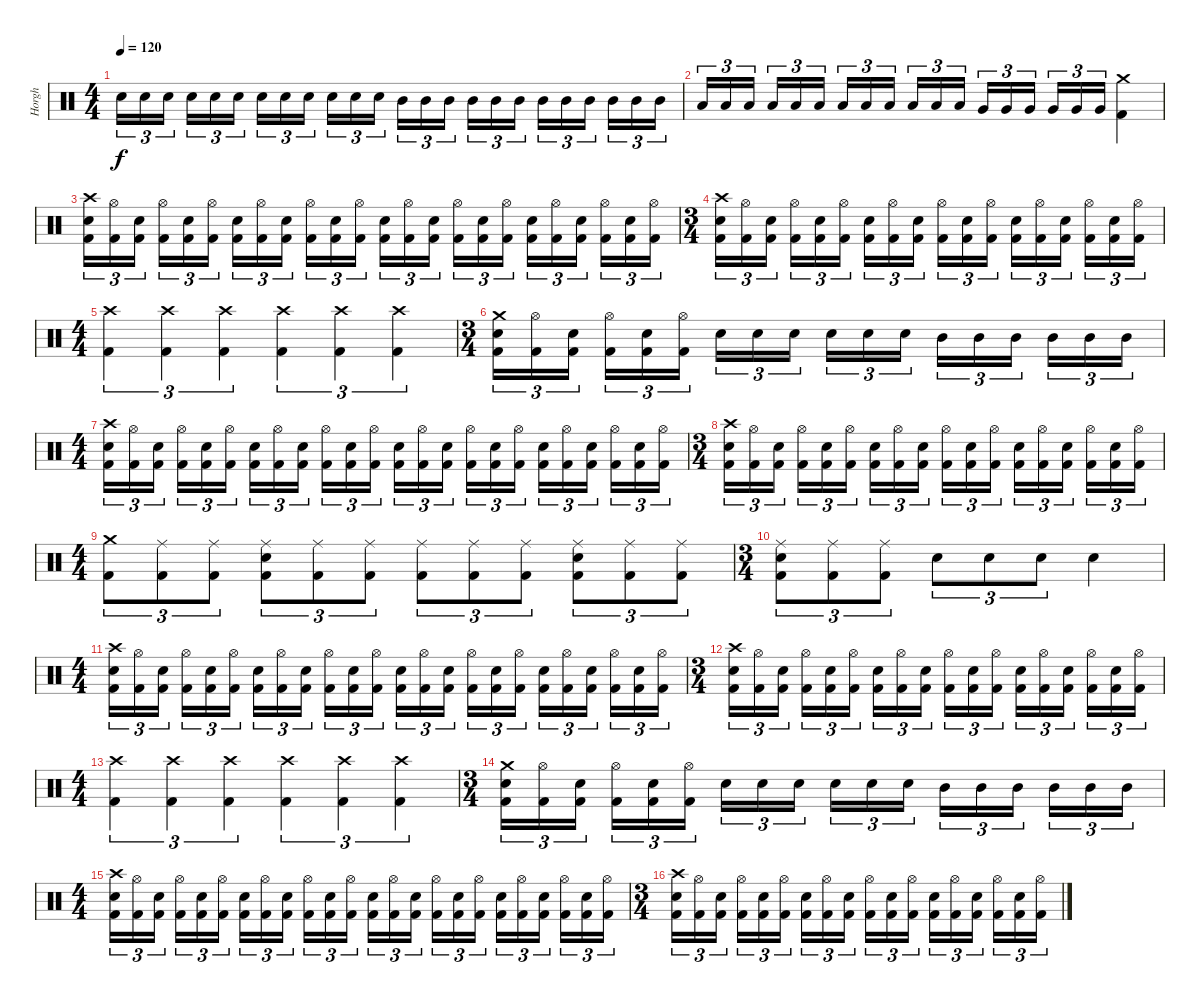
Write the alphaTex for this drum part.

\track ("Horgh" "Horgh") {instrument percussion}
\staff {score}
\articulation defaults
\ts (4 4)
\tempo 120
\clef neutral
\ks c "Electric Snare (hit)".16{tu (3 2) dy f} "Electric Snare (hit)".16{tu (3 2)} "Electric Snare (hit)".16{tu (3 2) beam splitsecondary} "Electric Snare (hit)".16{tu (3 2)} "Electric Snare (hit)".16{tu (3 2)} "Electric Snare (hit)".16{tu (3 2)} "Electric Snare (hit)".16{tu (3 2)} "Electric Snare (hit)".16{tu (3 2)} "Electric Snare (hit)".16{tu (3 2) beam splitsecondary} "Electric Snare (hit)".16{tu (3 2)} "Electric Snare (hit)".16{tu (3 2)} "Electric Snare (hit)".16{tu (3 2)} "Mid Tom (hit)".16{tu (3 2)} "Mid Tom (hit)".16{tu (3 2)} "Mid Tom (hit)".16{tu (3 2) beam splitsecondary} "Mid Tom (hit)".16{tu (3 2)} "Mid Tom (hit)".16{tu (3 2)} "Mid Tom (hit)".16{tu (3 2)} "Mid Tom (hit)".16{tu (3 2)} "Mid Tom (hit)".16{tu (3 2)} "Mid Tom (hit)".16{tu (3 2) beam splitsecondary} "Mid Tom (hit)".16{tu (3 2)} "Mid Tom (hit)".16{tu (3 2)} "Mid Tom (hit)".16{tu (3 2)}
|
"Low Tom (hit)".16{tu (3 2)} "Low Tom (hit)".16{tu (3 2)} "Low Tom (hit)".16{tu (3 2) beam splitsecondary} "Low Tom (hit)".16{tu (3 2)} "Low Tom (hit)".16{tu (3 2)} "Low Tom (hit)".16{tu (3 2)} "Low Tom (hit)".16{tu (3 2)} "Low Tom (hit)".16{tu (3 2)} "Low Tom (hit)".16{tu (3 2) beam splitsecondary} "Low Tom (hit)".16{tu (3 2)} "Low Tom (hit)".16{tu (3 2)} "Low Tom (hit)".16{tu (3 2)} "Very Low Tom (hit)".16{tu (3 2)} "Very Low Tom (hit)".16{tu (3 2)} "Very Low Tom (hit)".16{tu (3 2) beam splitsecondary} "Very Low Tom (hit)".16{tu (3 2)} "Very Low Tom (hit)".16{tu (3 2)} "Very Low Tom (hit)".16{tu (3 2)} ("Crash medium (hit)" "Kick (hit) 2").4 |
("Crash high (hit)" "Electric Snare (hit)" "Kick (hit) 2").16{tu (3 2)} ("Hi-Hat (open)" "Kick (hit) 2").16{tu (3 2)} ("Electric Snare (hit)" "Kick (hit) 2").16{tu (3 2) beam splitsecondary} ("Hi-Hat (open)" "Kick (hit) 2").16{tu (3 2)} ("Electric Snare (hit)" "Kick (hit) 2").16{tu (3 2)} ("Hi-Hat (open)" "Kick (hit) 2").16{tu (3 2)} ("Electric Snare (hit)" "Kick (hit) 2").16{tu (3 2)} ("Hi-Hat (open)" "Kick (hit) 2").16{tu (3 2)} ("Electric Snare (hit)" "Kick (hit) 2").16{tu (3 2) beam splitsecondary} ("Hi-Hat (open)" "Kick (hit) 2").16{tu (3 2)} ("Electric Snare (hit)" "Kick (hit) 2").16{tu (3 2)} ("Hi-Hat (open)" "Kick (hit) 2").16{tu (3 2)} ("Electric Snare (hit)" "Kick (hit) 2").16{tu (3 2)} ("Hi-Hat (open)" "Kick (hit) 2").16{tu (3 2)} ("Electric Snare (hit)" "Kick (hit) 2").16{tu (3 2) beam splitsecondary} ("Hi-Hat (open)" "Kick (hit) 2").16{tu (3 2)} ("Electric Snare (hit)" "Kick (hit) 2").16{tu (3 2)} ("Hi-Hat (open)" "Kick (hit) 2").16{tu (3 2)} ("Electric Snare (hit)" "Kick (hit) 2").16{tu (3 2)} ("Hi-Hat (open)" "Kick (hit) 2").16{tu (3 2)} ("Electric Snare (hit)" "Kick (hit) 2").16{tu (3 2) beam splitsecondary} ("Hi-Hat (open)" "Kick (hit) 2").16{tu (3 2)} ("Electric Snare (hit)" "Kick (hit) 2").16{tu (3 2)} ("Hi-Hat (open)" "Kick (hit) 2").16{tu (3 2)} |
\ts (3 4)
("Crash high (hit)" "Electric Snare (hit)" "Kick (hit) 2").16{tu (3 2)} ("Hi-Hat (open)" "Kick (hit) 2").16{tu (3 2)} ("Electric Snare (hit)" "Kick (hit) 2").16{tu (3 2) beam splitsecondary} ("Hi-Hat (open)" "Kick (hit) 2").16{tu (3 2)} ("Electric Snare (hit)" "Kick (hit) 2").16{tu (3 2)} ("Hi-Hat (open)" "Kick (hit) 2").16{tu (3 2)} ("Electric Snare (hit)" "Kick (hit) 2").16{tu (3 2)} ("Hi-Hat (open)" "Kick (hit) 2").16{tu (3 2)} ("Electric Snare (hit)" "Kick (hit) 2").16{tu (3 2) beam splitsecondary} ("Hi-Hat (open)" "Kick (hit) 2").16{tu (3 2)} ("Electric Snare (hit)" "Kick (hit) 2").16{tu (3 2)} ("Hi-Hat (open)" "Kick (hit) 2").16{tu (3 2)} ("Electric Snare (hit)" "Kick (hit) 2").16{tu (3 2)} ("Hi-Hat (open)" "Kick (hit) 2").16{tu (3 2)} ("Electric Snare (hit)" "Kick (hit) 2").16{tu (3 2) beam splitsecondary} ("Hi-Hat (open)" "Kick (hit) 2").16{tu (3 2)} ("Electric Snare (hit)" "Kick (hit) 2").16{tu (3 2)} ("Hi-Hat (open)" "Kick (hit) 2").16{tu (3 2)} |
\ts (4 4)
("Crash high (hit)" "Kick (hit) 2").4{tu (3 2)} ("Crash high (hit)" "Kick (hit) 2").4{tu (3 2)} ("Crash high (hit)" "Kick (hit) 2").4{tu (3 2)} ("Crash high (hit)" "Kick (hit) 2").4{tu (3 2)} ("Crash high (hit)" "Kick (hit) 2").4{tu (3 2)} ("Crash high (hit)" "Kick (hit) 2").4{tu (3 2)} |
\ts (3 4)
("Crash medium (hit)" "Electric Snare (hit)" "Kick (hit) 2").16{tu (3 2)} ("Hi-Hat (open)" "Kick (hit) 2").16{tu (3 2)} ("Electric Snare (hit)" "Kick (hit) 2").16{tu (3 2) beam splitsecondary} ("Hi-Hat (open)" "Kick (hit) 2").16{tu (3 2)} ("Electric Snare (hit)" "Kick (hit) 2").16{tu (3 2)} ("Hi-Hat (open)" "Kick (hit) 2").16{tu (3 2)} "Electric Snare (hit)".16{tu (3 2)} "Electric Snare (hit)".16{tu (3 2)} "Electric Snare (hit)".16{tu (3 2) beam splitsecondary} "Electric Snare (hit)".16{tu (3 2)} "Electric Snare (hit)".16{tu (3 2)} "Electric Snare (hit)".16{tu (3 2)} "Mid Tom (hit)".16{tu (3 2)} "Mid Tom (hit)".16{tu (3 2)} "Mid Tom (hit)".16{tu (3 2) beam splitsecondary} "Mid Tom (hit)".16{tu (3 2)} "Mid Tom (hit)".16{tu (3 2)} "Mid Tom (hit)".16{tu (3 2)} |
\ts (4 4)
("Crash high (hit)" "Electric Snare (hit)" "Kick (hit) 2").16{tu (3 2)} ("Hi-Hat (open)" "Kick (hit) 2").16{tu (3 2)} ("Electric Snare (hit)" "Kick (hit) 2").16{tu (3 2) beam splitsecondary} ("Hi-Hat (open)" "Kick (hit) 2").16{tu (3 2)} ("Electric Snare (hit)" "Kick (hit) 2").16{tu (3 2)} ("Hi-Hat (open)" "Kick (hit) 2").16{tu (3 2)} ("Electric Snare (hit)" "Kick (hit) 2").16{tu (3 2)} ("Hi-Hat (open)" "Kick (hit) 2").16{tu (3 2)} ("Electric Snare (hit)" "Kick (hit) 2").16{tu (3 2) beam splitsecondary} ("Hi-Hat (open)" "Kick (hit) 2").16{tu (3 2)} ("Electric Snare (hit)" "Kick (hit) 2").16{tu (3 2)} ("Hi-Hat (open)" "Kick (hit) 2").16{tu (3 2)} ("Electric Snare (hit)" "Kick (hit) 2").16{tu (3 2)} ("Hi-Hat (open)" "Kick (hit) 2").16{tu (3 2)} ("Electric Snare (hit)" "Kick (hit) 2").16{tu (3 2) beam splitsecondary} ("Hi-Hat (open)" "Kick (hit) 2").16{tu (3 2)} ("Electric Snare (hit)" "Kick (hit) 2").16{tu (3 2)} ("Hi-Hat (open)" "Kick (hit) 2").16{tu (3 2)} ("Electric Snare (hit)" "Kick (hit) 2").16{tu (3 2)} ("Hi-Hat (open)" "Kick (hit) 2").16{tu (3 2)} ("Electric Snare (hit)" "Kick (hit) 2").16{tu (3 2) beam splitsecondary} ("Hi-Hat (open)" "Kick (hit) 2").16{tu (3 2)} ("Electric Snare (hit)" "Kick (hit) 2").16{tu (3 2)} ("Hi-Hat (open)" "Kick (hit) 2").16{tu (3 2)} |
\ts (3 4)
("Crash high (hit)" "Electric Snare (hit)" "Kick (hit) 2").16{tu (3 2)} ("Hi-Hat (open)" "Kick (hit) 2").16{tu (3 2)} ("Electric Snare (hit)" "Kick (hit) 2").16{tu (3 2) beam splitsecondary} ("Hi-Hat (open)" "Kick (hit) 2").16{tu (3 2)} ("Electric Snare (hit)" "Kick (hit) 2").16{tu (3 2)} ("Hi-Hat (open)" "Kick (hit) 2").16{tu (3 2)} ("Electric Snare (hit)" "Kick (hit) 2").16{tu (3 2)} ("Hi-Hat (open)" "Kick (hit) 2").16{tu (3 2)} ("Electric Snare (hit)" "Kick (hit) 2").16{tu (3 2) beam splitsecondary} ("Hi-Hat (open)" "Kick (hit) 2").16{tu (3 2)} ("Electric Snare (hit)" "Kick (hit) 2").16{tu (3 2)} ("Hi-Hat (open)" "Kick (hit) 2").16{tu (3 2)} ("Electric Snare (hit)" "Kick (hit) 2").16{tu (3 2)} ("Hi-Hat (open)" "Kick (hit) 2").16{tu (3 2)} ("Electric Snare (hit)" "Kick (hit) 2").16{tu (3 2) beam splitsecondary} ("Hi-Hat (open)" "Kick (hit) 2").16{tu (3 2)} ("Electric Snare (hit)" "Kick (hit) 2").16{tu (3 2)} ("Hi-Hat (open)" "Kick (hit) 2").16{tu (3 2)} |
\ts (4 4)
("Crash medium (hit)" "Kick (hit) 2").8{tu (3 2)} ("Ride (middle)" "Kick (hit) 2").8{tu (3 2)} ("Ride (middle)" "Kick (hit) 2").8{tu (3 2)} ("Ride (middle)" "Electric Snare (hit)" "Kick (hit) 2").8{tu (3 2)} ("Ride (middle)" "Kick (hit) 2").8{tu (3 2)} ("Ride (middle)" "Kick (hit) 2").8{tu (3 2)} ("Ride (middle)" "Kick (hit) 2").8{tu (3 2)} ("Ride (middle)" "Kick (hit) 2").8{tu (3 2)} ("Ride (middle)" "Kick (hit) 2").8{tu (3 2)} ("Ride (middle)" "Electric Snare (hit)" "Kick (hit) 2").8{tu (3 2)} ("Ride (middle)" "Kick (hit) 2").8{tu (3 2)} ("Ride (middle)" "Kick (hit) 2").8{tu (3 2)} |
\ts (3 4)
("Ride (middle)" "Electric Snare (hit)" "Kick (hit) 2").8{tu (3 2)} ("Ride (middle)" "Kick (hit) 2").8{tu (3 2)} ("Ride (middle)" "Kick (hit) 2").8{tu (3 2)} "Electric Snare (hit)".8{tu (3 2)} "Electric Snare (hit)".8{tu (3 2)} "Electric Snare (hit)".8{tu (3 2)} "Electric Snare (hit)".4 |
\ts (4 4)
("Crash high (hit)" "Electric Snare (hit)" "Kick (hit) 2").16{tu (3 2)} ("Hi-Hat (open)" "Kick (hit) 2").16{tu (3 2)} ("Electric Snare (hit)" "Kick (hit) 2").16{tu (3 2) beam splitsecondary} ("Hi-Hat (open)" "Kick (hit) 2").16{tu (3 2)} ("Electric Snare (hit)" "Kick (hit) 2").16{tu (3 2)} ("Hi-Hat (open)" "Kick (hit) 2").16{tu (3 2)} ("Electric Snare (hit)" "Kick (hit) 2").16{tu (3 2)} ("Hi-Hat (open)" "Kick (hit) 2").16{tu (3 2)} ("Electric Snare (hit)" "Kick (hit) 2").16{tu (3 2) beam splitsecondary} ("Hi-Hat (open)" "Kick (hit) 2").16{tu (3 2)} ("Electric Snare (hit)" "Kick (hit) 2").16{tu (3 2)} ("Hi-Hat (open)" "Kick (hit) 2").16{tu (3 2)} ("Electric Snare (hit)" "Kick (hit) 2").16{tu (3 2)} ("Hi-Hat (open)" "Kick (hit) 2").16{tu (3 2)} ("Electric Snare (hit)" "Kick (hit) 2").16{tu (3 2) beam splitsecondary} ("Hi-Hat (open)" "Kick (hit) 2").16{tu (3 2)} ("Electric Snare (hit)" "Kick (hit) 2").16{tu (3 2)} ("Hi-Hat (open)" "Kick (hit) 2").16{tu (3 2)} ("Electric Snare (hit)" "Kick (hit) 2").16{tu (3 2)} ("Hi-Hat (open)" "Kick (hit) 2").16{tu (3 2)} ("Electric Snare (hit)" "Kick (hit) 2").16{tu (3 2) beam splitsecondary} ("Hi-Hat (open)" "Kick (hit) 2").16{tu (3 2)} ("Electric Snare (hit)" "Kick (hit) 2").16{tu (3 2)} ("Hi-Hat (open)" "Kick (hit) 2").16{tu (3 2)} |
\ts (3 4)
("Crash high (hit)" "Electric Snare (hit)" "Kick (hit) 2").16{tu (3 2)} ("Hi-Hat (open)" "Kick (hit) 2").16{tu (3 2)} ("Electric Snare (hit)" "Kick (hit) 2").16{tu (3 2) beam splitsecondary} ("Hi-Hat (open)" "Kick (hit) 2").16{tu (3 2)} ("Electric Snare (hit)" "Kick (hit) 2").16{tu (3 2)} ("Hi-Hat (open)" "Kick (hit) 2").16{tu (3 2)} ("Electric Snare (hit)" "Kick (hit) 2").16{tu (3 2)} ("Hi-Hat (open)" "Kick (hit) 2").16{tu (3 2)} ("Electric Snare (hit)" "Kick (hit) 2").16{tu (3 2) beam splitsecondary} ("Hi-Hat (open)" "Kick (hit) 2").16{tu (3 2)} ("Electric Snare (hit)" "Kick (hit) 2").16{tu (3 2)} ("Hi-Hat (open)" "Kick (hit) 2").16{tu (3 2)} ("Electric Snare (hit)" "Kick (hit) 2").16{tu (3 2)} ("Hi-Hat (open)" "Kick (hit) 2").16{tu (3 2)} ("Electric Snare (hit)" "Kick (hit) 2").16{tu (3 2) beam splitsecondary} ("Hi-Hat (open)" "Kick (hit) 2").16{tu (3 2)} ("Electric Snare (hit)" "Kick (hit) 2").16{tu (3 2)} ("Hi-Hat (open)" "Kick (hit) 2").16{tu (3 2)} |
\ts (4 4)
("Crash high (hit)" "Kick (hit) 2").4{tu (3 2)} ("Crash high (hit)" "Kick (hit) 2").4{tu (3 2)} ("Crash high (hit)" "Kick (hit) 2").4{tu (3 2)} ("Crash high (hit)" "Kick (hit) 2").4{tu (3 2)} ("Crash high (hit)" "Kick (hit) 2").4{tu (3 2)} ("Crash high (hit)" "Kick (hit) 2").4{tu (3 2)} |
\ts (3 4)
("Crash medium (hit)" "Electric Snare (hit)" "Kick (hit) 2").16{tu (3 2)} ("Hi-Hat (open)" "Kick (hit) 2").16{tu (3 2)} ("Electric Snare (hit)" "Kick (hit) 2").16{tu (3 2) beam splitsecondary} ("Hi-Hat (open)" "Kick (hit) 2").16{tu (3 2)} ("Electric Snare (hit)" "Kick (hit) 2").16{tu (3 2)} ("Hi-Hat (open)" "Kick (hit) 2").16{tu (3 2)} "Electric Snare (hit)".16{tu (3 2)} "Electric Snare (hit)".16{tu (3 2)} "Electric Snare (hit)".16{tu (3 2) beam splitsecondary} "Electric Snare (hit)".16{tu (3 2)} "Electric Snare (hit)".16{tu (3 2)} "Electric Snare (hit)".16{tu (3 2)} "Mid Tom (hit)".16{tu (3 2)} "Mid Tom (hit)".16{tu (3 2)} "Mid Tom (hit)".16{tu (3 2) beam splitsecondary} "Mid Tom (hit)".16{tu (3 2)} "Mid Tom (hit)".16{tu (3 2)} "Mid Tom (hit)".16{tu (3 2)} |
\ts (4 4)
("Crash high (hit)" "Electric Snare (hit)" "Kick (hit) 2").16{tu (3 2)} ("Hi-Hat (open)" "Kick (hit) 2").16{tu (3 2)} ("Electric Snare (hit)" "Kick (hit) 2").16{tu (3 2) beam splitsecondary} ("Hi-Hat (open)" "Kick (hit) 2").16{tu (3 2)} ("Electric Snare (hit)" "Kick (hit) 2").16{tu (3 2)} ("Hi-Hat (open)" "Kick (hit) 2").16{tu (3 2)} ("Electric Snare (hit)" "Kick (hit) 2").16{tu (3 2)} ("Hi-Hat (open)" "Kick (hit) 2").16{tu (3 2)} ("Electric Snare (hit)" "Kick (hit) 2").16{tu (3 2) beam splitsecondary} ("Hi-Hat (open)" "Kick (hit) 2").16{tu (3 2)} ("Electric Snare (hit)" "Kick (hit) 2").16{tu (3 2)} ("Hi-Hat (open)" "Kick (hit) 2").16{tu (3 2)} ("Electric Snare (hit)" "Kick (hit) 2").16{tu (3 2)} ("Hi-Hat (open)" "Kick (hit) 2").16{tu (3 2)} ("Electric Snare (hit)" "Kick (hit) 2").16{tu (3 2) beam splitsecondary} ("Hi-Hat (open)" "Kick (hit) 2").16{tu (3 2)} ("Electric Snare (hit)" "Kick (hit) 2").16{tu (3 2)} ("Hi-Hat (open)" "Kick (hit) 2").16{tu (3 2)} ("Electric Snare (hit)" "Kick (hit) 2").16{tu (3 2)} ("Hi-Hat (open)" "Kick (hit) 2").16{tu (3 2)} ("Electric Snare (hit)" "Kick (hit) 2").16{tu (3 2) beam splitsecondary} ("Hi-Hat (open)" "Kick (hit) 2").16{tu (3 2)} ("Electric Snare (hit)" "Kick (hit) 2").16{tu (3 2)} ("Hi-Hat (open)" "Kick (hit) 2").16{tu (3 2)} |
\ts (3 4)
("Crash high (hit)" "Electric Snare (hit)" "Kick (hit) 2").16{tu (3 2)} ("Hi-Hat (open)" "Kick (hit) 2").16{tu (3 2)} ("Electric Snare (hit)" "Kick (hit) 2").16{tu (3 2) beam splitsecondary} ("Hi-Hat (open)" "Kick (hit) 2").16{tu (3 2)} ("Electric Snare (hit)" "Kick (hit) 2").16{tu (3 2)} ("Hi-Hat (open)" "Kick (hit) 2").16{tu (3 2)} ("Electric Snare (hit)" "Kick (hit) 2").16{tu (3 2)} ("Hi-Hat (open)" "Kick (hit) 2").16{tu (3 2)} ("Electric Snare (hit)" "Kick (hit) 2").16{tu (3 2) beam splitsecondary} ("Hi-Hat (open)" "Kick (hit) 2").16{tu (3 2)} ("Electric Snare (hit)" "Kick (hit) 2").16{tu (3 2)} ("Hi-Hat (open)" "Kick (hit) 2").16{tu (3 2)} ("Electric Snare (hit)" "Kick (hit) 2").16{tu (3 2)} ("Hi-Hat (open)" "Kick (hit) 2").16{tu (3 2)} ("Electric Snare (hit)" "Kick (hit) 2").16{tu (3 2) beam splitsecondary} ("Hi-Hat (open)" "Kick (hit) 2").16{tu (3 2)} ("Electric Snare (hit)" "Kick (hit) 2").16{tu (3 2)} ("Hi-Hat (open)" "Kick (hit) 2").16{tu (3 2)}
